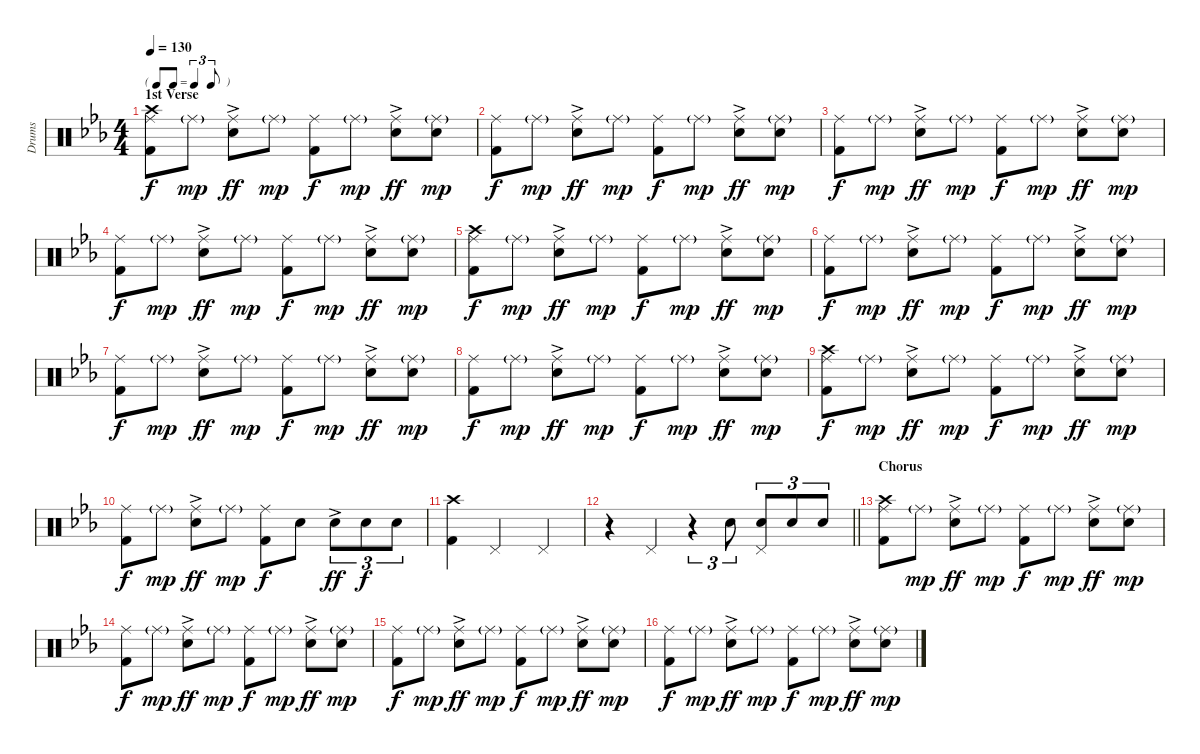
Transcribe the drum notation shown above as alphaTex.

\track ("Drums" "Drums") {instrument percussion}
\staff {score}
\articulation defaults
\ts (4 4)
\tf triplet8th
\section ("" "1st Verse")
\tempo 130
\clef neutral
\ks eb
("Ride (middle)" "Kick (hit) 2" "Crash high (hit)").8{dy f} "Ride (middle)"{g}.8{dy mp} ("Ride (middle)" "Electric Snare (hit)"{ac}).8{dy ff} "Ride (middle)"{g}.8{dy mp} ("Ride (middle)" "Kick (hit) 2").8{dy f} "Ride (middle)"{g}.8{dy mp} ("Ride (middle)" "Electric Snare (hit)"{ac}).8{dy ff} ("Ride (middle)"{g} "Electric Snare (hit)").8{dy mp} |
("Ride (middle)" "Kick (hit) 2").8{dy f} "Ride (middle)"{g}.8{dy mp} ("Ride (middle)" "Electric Snare (hit)"{ac}).8{dy ff} "Ride (middle)"{g}.8{dy mp} ("Ride (middle)" "Kick (hit) 2").8{dy f} "Ride (middle)"{g}.8{dy mp} ("Ride (middle)" "Electric Snare (hit)"{ac}).8{dy ff} ("Ride (middle)"{g} "Electric Snare (hit)").8{dy mp} |
("Ride (middle)" "Kick (hit) 2").8{dy f} "Ride (middle)"{g}.8{dy mp} ("Ride (middle)" "Electric Snare (hit)"{ac}).8{dy ff} "Ride (middle)"{g}.8{dy mp} ("Ride (middle)" "Kick (hit) 2").8{dy f} "Ride (middle)"{g}.8{dy mp} ("Ride (middle)" "Electric Snare (hit)"{ac}).8{dy ff} ("Ride (middle)"{g} "Electric Snare (hit)").8{dy mp} |
("Ride (middle)" "Kick (hit) 2").8{dy f} "Ride (middle)"{g}.8{dy mp} ("Ride (middle)" "Electric Snare (hit)"{ac}).8{dy ff} "Ride (middle)"{g}.8{dy mp} ("Ride (middle)" "Kick (hit) 2").8{dy f} "Ride (middle)"{g}.8{dy mp} ("Ride (middle)" "Electric Snare (hit)"{ac}).8{dy ff} ("Ride (middle)"{g} "Electric Snare (hit)").8{dy mp} |
("Ride (middle)" "Kick (hit) 2" "Crash high (hit)").8{dy f} "Ride (middle)"{g}.8{dy mp} ("Ride (middle)" "Electric Snare (hit)"{ac}).8{dy ff} "Ride (middle)"{g}.8{dy mp} ("Ride (middle)" "Kick (hit) 2").8{dy f} "Ride (middle)"{g}.8{dy mp} ("Ride (middle)" "Electric Snare (hit)"{ac}).8{dy ff} ("Ride (middle)"{g} "Electric Snare (hit)").8{dy mp} |
("Ride (middle)" "Kick (hit) 2").8{dy f} "Ride (middle)"{g}.8{dy mp} ("Ride (middle)" "Electric Snare (hit)"{ac}).8{dy ff} "Ride (middle)"{g}.8{dy mp} ("Ride (middle)" "Kick (hit) 2").8{dy f} "Ride (middle)"{g}.8{dy mp} ("Ride (middle)" "Electric Snare (hit)"{ac}).8{dy ff} ("Ride (middle)"{g} "Electric Snare (hit)").8{dy mp} |
("Ride (middle)" "Kick (hit) 2").8{dy f} "Ride (middle)"{g}.8{dy mp} ("Ride (middle)" "Electric Snare (hit)"{ac}).8{dy ff} "Ride (middle)"{g}.8{dy mp} ("Ride (middle)" "Kick (hit) 2").8{dy f} "Ride (middle)"{g}.8{dy mp} ("Ride (middle)" "Electric Snare (hit)"{ac}).8{dy ff} ("Ride (middle)"{g} "Electric Snare (hit)").8{dy mp} |
("Ride (middle)" "Kick (hit) 2").8{dy f} "Ride (middle)"{g}.8{dy mp} ("Ride (middle)" "Electric Snare (hit)"{ac}).8{dy ff} "Ride (middle)"{g}.8{dy mp} ("Ride (middle)" "Kick (hit) 2").8{dy f} "Ride (middle)"{g}.8{dy mp} ("Ride (middle)" "Electric Snare (hit)"{ac}).8{dy ff} ("Ride (middle)"{g} "Electric Snare (hit)").8{dy mp} |
("Ride (middle)" "Kick (hit) 2" "Crash high (hit)").8{dy f} "Ride (middle)"{g}.8{dy mp} ("Ride (middle)" "Electric Snare (hit)"{ac}).8{dy ff} "Ride (middle)"{g}.8{dy mp} ("Ride (middle)" "Kick (hit) 2").8{dy f} "Ride (middle)"{g}.8{dy mp} ("Ride (middle)" "Electric Snare (hit)"{ac}).8{dy ff} ("Ride (middle)"{g} "Electric Snare (hit)").8{dy mp} |
("Ride (middle)" "Kick (hit) 2").8{dy f} "Ride (middle)"{g}.8{dy mp} ("Ride (middle)" "Electric Snare (hit)"{ac}).8{dy ff} "Ride (middle)"{g}.8{dy mp} ("Ride (middle)" "Kick (hit) 2").8{dy f} "Electric Snare (hit)".8 "Electric Snare (hit)"{ac}.8{tu (3 2) dy ff} "Electric Snare (hit)".8{tu (3 2) dy f} "Electric Snare (hit)".8{tu (3 2)} |
("Kick (hit) 2" "Crash high (hit)").4 "Pedal Hi-Hat (hit)".2 "Pedal Hi-Hat (hit)".4 |
\barLineRight lightlight
r.4 "Pedal Hi-Hat (hit)".4 r.4{tu (3 2)} "Electric Snare (hit)".8{tu (3 2)} ("Pedal Hi-Hat (hit)" "Electric Snare (hit)").8{tu (3 2)} "Electric Snare (hit)".8{tu (3 2)} "Electric Snare (hit)".8{tu (3 2)} |
\section ("" "Chorus")
("Ride (middle)" "Kick (hit) 2" "Crash high (hit)").8 "Ride (middle)"{g}.8{dy mp} ("Ride (middle)" "Electric Snare (hit)"{ac}).8{dy ff} "Ride (middle)"{g}.8{dy mp} ("Ride (middle)" "Kick (hit) 2").8{dy f} "Ride (middle)"{g}.8{dy mp} ("Ride (middle)" "Electric Snare (hit)"{ac}).8{dy ff} ("Ride (middle)"{g} "Electric Snare (hit)").8{dy mp} |
("Ride (middle)" "Kick (hit) 2").8{dy f} "Ride (middle)"{g}.8{dy mp} ("Ride (middle)" "Electric Snare (hit)"{ac}).8{dy ff} "Ride (middle)"{g}.8{dy mp} ("Ride (middle)" "Kick (hit) 2").8{dy f} "Ride (middle)"{g}.8{dy mp} ("Ride (middle)" "Electric Snare (hit)"{ac}).8{dy ff} ("Ride (middle)"{g} "Electric Snare (hit)").8{dy mp} |
("Ride (middle)" "Kick (hit) 2").8{dy f} "Ride (middle)"{g}.8{dy mp} ("Ride (middle)" "Electric Snare (hit)"{ac}).8{dy ff} "Ride (middle)"{g}.8{dy mp} ("Ride (middle)" "Kick (hit) 2").8{dy f} "Ride (middle)"{g}.8{dy mp} ("Ride (middle)" "Electric Snare (hit)"{ac}).8{dy ff} ("Ride (middle)"{g} "Electric Snare (hit)").8{dy mp} |
("Ride (middle)" "Kick (hit) 2").8{dy f} "Ride (middle)"{g}.8{dy mp} ("Ride (middle)" "Electric Snare (hit)"{ac}).8{dy ff} "Ride (middle)"{g}.8{dy mp} ("Ride (middle)" "Kick (hit) 2").8{dy f} "Ride (middle)"{g}.8{dy mp} ("Ride (middle)" "Electric Snare (hit)"{ac}).8{dy ff} ("Ride (middle)"{g} "Electric Snare (hit)").8{dy mp}
